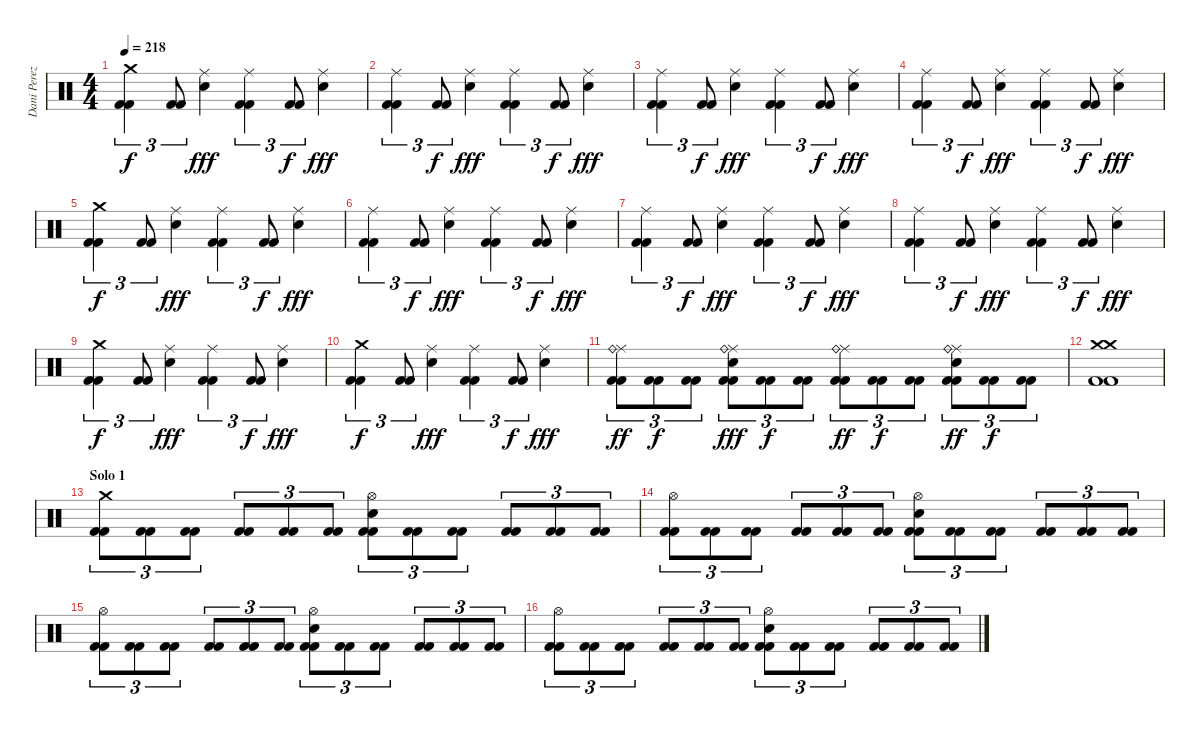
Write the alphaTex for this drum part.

\track ("Dani Perez" "Dani Perez") {instrument percussion}
\staff {score}
\articulation defaults
\ts (4 4)
\tempo 218
\clef neutral
\ks c
("Crash medium (hit)" "Kick (hit) 2" "Kick (hit) 2").4{tu (3 2) dy f} ("Kick (hit) 2" "Kick (hit) 2").8{tu (3 2)} ("Ride (middle)" "Snare (hit) 2").4{dy fff} ("Ride (middle)" "Kick (hit) 2" "Kick (hit) 2").4{tu (3 2)} ("Kick (hit) 2" "Kick (hit) 2").8{tu (3 2) dy f} ("Ride (middle)" "Snare (hit) 2").4{dy fff} |
("Ride (middle)" "Kick (hit) 2" "Kick (hit) 2").4{tu (3 2)} ("Kick (hit) 2" "Kick (hit) 2").8{tu (3 2) dy f} ("Ride (middle)" "Snare (hit) 2").4{dy fff} ("Ride (middle)" "Kick (hit) 2" "Kick (hit) 2").4{tu (3 2)} ("Kick (hit) 2" "Kick (hit) 2").8{tu (3 2) dy f} ("Ride (middle)" "Snare (hit) 2").4{dy fff} |
("Ride (middle)" "Kick (hit) 2" "Kick (hit) 2").4{tu (3 2)} ("Kick (hit) 2" "Kick (hit) 2").8{tu (3 2) dy f} ("Ride (middle)" "Snare (hit) 2").4{dy fff} ("Ride (middle)" "Kick (hit) 2" "Kick (hit) 2").4{tu (3 2)} ("Kick (hit) 2" "Kick (hit) 2").8{tu (3 2) dy f} ("Ride (middle)" "Snare (hit) 2").4{dy fff} |
("Ride (middle)" "Kick (hit) 2" "Kick (hit) 2").4{tu (3 2)} ("Kick (hit) 2" "Kick (hit) 2").8{tu (3 2) dy f} ("Ride (middle)" "Snare (hit) 2").4{dy fff} ("Ride (middle)" "Kick (hit) 2" "Kick (hit) 2").4{tu (3 2)} ("Kick (hit) 2" "Kick (hit) 2").8{tu (3 2) dy f} ("Ride (middle)" "Snare (hit) 2").4{dy fff} |
("Crash medium (hit)" "Kick (hit) 2" "Kick (hit) 2").4{tu (3 2) dy f} ("Kick (hit) 2" "Kick (hit) 2").8{tu (3 2)} ("Ride (middle)" "Snare (hit) 2").4{dy fff} ("Ride (middle)" "Kick (hit) 2" "Kick (hit) 2").4{tu (3 2)} ("Kick (hit) 2" "Kick (hit) 2").8{tu (3 2) dy f} ("Ride (middle)" "Snare (hit) 2").4{dy fff} |
("Ride (middle)" "Kick (hit) 2" "Kick (hit) 2").4{tu (3 2)} ("Kick (hit) 2" "Kick (hit) 2").8{tu (3 2) dy f} ("Ride (middle)" "Snare (hit) 2").4{dy fff} ("Ride (middle)" "Kick (hit) 2" "Kick (hit) 2").4{tu (3 2)} ("Kick (hit) 2" "Kick (hit) 2").8{tu (3 2) dy f} ("Ride (middle)" "Snare (hit) 2").4{dy fff} |
("Ride (middle)" "Kick (hit) 2" "Kick (hit) 2").4{tu (3 2)} ("Kick (hit) 2" "Kick (hit) 2").8{tu (3 2) dy f} ("Ride (middle)" "Snare (hit) 2").4{dy fff} ("Ride (middle)" "Kick (hit) 2" "Kick (hit) 2").4{tu (3 2)} ("Kick (hit) 2" "Kick (hit) 2").8{tu (3 2) dy f} ("Ride (middle)" "Snare (hit) 2").4{dy fff} |
("Ride (middle)" "Kick (hit) 2" "Kick (hit) 2").4{tu (3 2)} ("Kick (hit) 2" "Kick (hit) 2").8{tu (3 2) dy f} ("Ride (middle)" "Snare (hit) 2").4{dy fff} ("Ride (middle)" "Kick (hit) 2" "Kick (hit) 2").4{tu (3 2)} ("Kick (hit) 2" "Kick (hit) 2").8{tu (3 2) dy f} ("Ride (middle)" "Snare (hit) 2").4{dy fff} |
("Crash medium (hit)" "Kick (hit) 2" "Kick (hit) 2").4{tu (3 2) dy f} ("Kick (hit) 2" "Kick (hit) 2").8{tu (3 2)} ("Ride (middle)" "Snare (hit) 2").4{dy fff} ("Ride (middle)" "Kick (hit) 2" "Kick (hit) 2").4{tu (3 2)} ("Kick (hit) 2" "Kick (hit) 2").8{tu (3 2) dy f} ("Ride (middle)" "Snare (hit) 2").4{dy fff} |
("Crash medium (hit)" "Kick (hit) 2" "Kick (hit) 2").4{tu (3 2) dy f} ("Kick (hit) 2" "Kick (hit) 2").8{tu (3 2)} ("Ride (middle)" "Snare (hit) 2").4{dy fff} ("Ride (middle)" "Kick (hit) 2" "Kick (hit) 2").4{tu (3 2)} ("Kick (hit) 2" "Kick (hit) 2").8{tu (3 2) dy f} ("Ride (middle)" "Snare (hit) 2").4{dy fff} |
("Ride (middle)" "Ride (bell)" "Kick (hit) 2" "Kick (hit) 2").8{tu (3 2) dy ff} ("Kick (hit) 2" "Kick (hit) 2").8{tu (3 2) dy f} ("Kick (hit) 2" "Kick (hit) 2").8{tu (3 2)} ("Ride (middle)" "Ride (bell)" "Snare (hit) 2" "Kick (hit) 2" "Kick (hit) 2").8{tu (3 2) dy fff} ("Kick (hit) 2" "Kick (hit) 2").8{tu (3 2) dy f} ("Kick (hit) 2" "Kick (hit) 2").8{tu (3 2)} ("Ride (middle)" "Ride (bell)" "Kick (hit) 2" "Kick (hit) 2").8{tu (3 2) dy ff} ("Kick (hit) 2" "Kick (hit) 2").8{tu (3 2) dy f} ("Kick (hit) 2" "Kick (hit) 2").8{tu (3 2)} ("Ride (middle)" "Ride (bell)" "Snare (hit) 2" "Kick (hit) 2" "Kick (hit) 2").8{tu (3 2) dy ff} ("Kick (hit) 2" "Kick (hit) 2").8{tu (3 2) dy f} ("Kick (hit) 2" "Kick (hit) 2").8{tu (3 2)} |
("Crash medium (hit)" "Crash medium (hit)" "Kick (hit) 2" "Kick (hit) 2").1 |
\section ("" "Solo 1")
("Crash medium (hit)" "Kick (hit) 2" "Kick (hit) 2").8{tu (3 2)} ("Kick (hit) 2" "Kick (hit) 2").8{tu (3 2)} ("Kick (hit) 2" "Kick (hit) 2").8{tu (3 2)} ("Kick (hit) 2" "Kick (hit) 2").8{tu (3 2)} ("Kick (hit) 2" "Kick (hit) 2").8{tu (3 2)} ("Kick (hit) 2" "Kick (hit) 2").8{tu (3 2)} ("Hi-Hat (open)" "Snare (hit) 2" "Kick (hit) 2" "Kick (hit) 2").8{tu (3 2)} ("Kick (hit) 2" "Kick (hit) 2").8{tu (3 2)} ("Kick (hit) 2" "Kick (hit) 2").8{tu (3 2)} ("Kick (hit) 2" "Kick (hit) 2").8{tu (3 2)} ("Kick (hit) 2" "Kick (hit) 2").8{tu (3 2)} ("Kick (hit) 2" "Kick (hit) 2").8{tu (3 2)} |
("Hi-Hat (open)" "Kick (hit) 2" "Kick (hit) 2").8{tu (3 2)} ("Kick (hit) 2" "Kick (hit) 2").8{tu (3 2)} ("Kick (hit) 2" "Kick (hit) 2").8{tu (3 2)} ("Kick (hit) 2" "Kick (hit) 2").8{tu (3 2)} ("Kick (hit) 2" "Kick (hit) 2").8{tu (3 2)} ("Kick (hit) 2" "Kick (hit) 2").8{tu (3 2)} ("Hi-Hat (open)" "Snare (hit) 2" "Kick (hit) 2" "Kick (hit) 2").8{tu (3 2)} ("Kick (hit) 2" "Kick (hit) 2").8{tu (3 2)} ("Kick (hit) 2" "Kick (hit) 2").8{tu (3 2)} ("Kick (hit) 2" "Kick (hit) 2").8{tu (3 2)} ("Kick (hit) 2" "Kick (hit) 2").8{tu (3 2)} ("Kick (hit) 2" "Kick (hit) 2").8{tu (3 2)} |
("Hi-Hat (open)" "Kick (hit) 2" "Kick (hit) 2").8{tu (3 2)} ("Kick (hit) 2" "Kick (hit) 2").8{tu (3 2)} ("Kick (hit) 2" "Kick (hit) 2").8{tu (3 2)} ("Kick (hit) 2" "Kick (hit) 2").8{tu (3 2)} ("Kick (hit) 2" "Kick (hit) 2").8{tu (3 2)} ("Kick (hit) 2" "Kick (hit) 2").8{tu (3 2)} ("Hi-Hat (open)" "Snare (hit) 2" "Kick (hit) 2" "Kick (hit) 2").8{tu (3 2)} ("Kick (hit) 2" "Kick (hit) 2").8{tu (3 2)} ("Kick (hit) 2" "Kick (hit) 2").8{tu (3 2)} ("Kick (hit) 2" "Kick (hit) 2").8{tu (3 2)} ("Kick (hit) 2" "Kick (hit) 2").8{tu (3 2)} ("Kick (hit) 2" "Kick (hit) 2").8{tu (3 2)} |
("Hi-Hat (open)" "Kick (hit) 2" "Kick (hit) 2").8{tu (3 2)} ("Kick (hit) 2" "Kick (hit) 2").8{tu (3 2)} ("Kick (hit) 2" "Kick (hit) 2").8{tu (3 2)} ("Kick (hit) 2" "Kick (hit) 2").8{tu (3 2)} ("Kick (hit) 2" "Kick (hit) 2").8{tu (3 2)} ("Kick (hit) 2" "Kick (hit) 2").8{tu (3 2)} ("Hi-Hat (open)" "Snare (hit) 2" "Kick (hit) 2" "Kick (hit) 2").8{tu (3 2)} ("Kick (hit) 2" "Kick (hit) 2").8{tu (3 2)} ("Kick (hit) 2" "Kick (hit) 2").8{tu (3 2)} ("Kick (hit) 2" "Kick (hit) 2").8{tu (3 2)} ("Kick (hit) 2" "Kick (hit) 2").8{tu (3 2)} ("Kick (hit) 2" "Kick (hit) 2").8{tu (3 2)}
